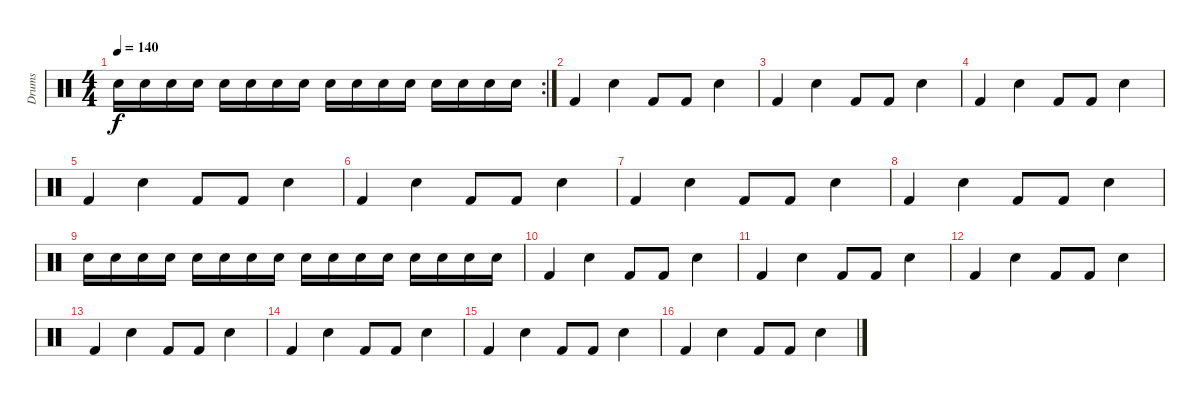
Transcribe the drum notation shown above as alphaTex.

\track ("Drums" "Drums") {instrument percussion}
\staff {score}
\articulation defaults
\rc 2
\ts (4 4)
\tempo 140
\clef neutral
\ks c "Electric Snare (hit)".16{dy f} "Electric Snare (hit)".16 "Electric Snare (hit)".16 "Electric Snare (hit)".16 "Electric Snare (hit)".16 "Electric Snare (hit)".16 "Electric Snare (hit)".16 "Electric Snare (hit)".16 "Electric Snare (hit)".16 "Electric Snare (hit)".16 "Electric Snare (hit)".16 "Electric Snare (hit)".16 "Electric Snare (hit)".16 "Electric Snare (hit)".16 "Electric Snare (hit)".16 "Electric Snare (hit)".16
|
"Kick (hit) 2".4 "Electric Snare (hit)".4 "Kick (hit) 2".8 "Kick (hit) 2".8 "Electric Snare (hit)".4 |
"Kick (hit) 2".4 "Electric Snare (hit)".4 "Kick (hit) 2".8 "Kick (hit) 2".8 "Electric Snare (hit)".4 |
"Kick (hit) 2".4 "Electric Snare (hit)".4 "Kick (hit) 2".8 "Kick (hit) 2".8 "Electric Snare (hit)".4 |
"Kick (hit) 2".4 "Electric Snare (hit)".4 "Kick (hit) 2".8 "Kick (hit) 2".8 "Electric Snare (hit)".4 |
"Kick (hit) 2".4 "Electric Snare (hit)".4 "Kick (hit) 2".8 "Kick (hit) 2".8 "Electric Snare (hit)".4 |
"Kick (hit) 2".4 "Electric Snare (hit)".4 "Kick (hit) 2".8 "Kick (hit) 2".8 "Electric Snare (hit)".4 |
"Kick (hit) 2".4 "Electric Snare (hit)".4 "Kick (hit) 2".8 "Kick (hit) 2".8 "Electric Snare (hit)".4 |
"Electric Snare (hit)".16 "Electric Snare (hit)".16 "Electric Snare (hit)".16 "Electric Snare (hit)".16 "Electric Snare (hit)".16 "Electric Snare (hit)".16 "Electric Snare (hit)".16 "Electric Snare (hit)".16 "Electric Snare (hit)".16 "Electric Snare (hit)".16 "Electric Snare (hit)".16 "Electric Snare (hit)".16 "Electric Snare (hit)".16 "Electric Snare (hit)".16 "Electric Snare (hit)".16 "Electric Snare (hit)".16 |
"Kick (hit) 2".4 "Electric Snare (hit)".4 "Kick (hit) 2".8 "Kick (hit) 2".8 "Electric Snare (hit)".4 |
"Kick (hit) 2".4 "Electric Snare (hit)".4 "Kick (hit) 2".8 "Kick (hit) 2".8 "Electric Snare (hit)".4 |
"Kick (hit) 2".4 "Electric Snare (hit)".4 "Kick (hit) 2".8 "Kick (hit) 2".8 "Electric Snare (hit)".4 |
"Kick (hit) 2".4 "Electric Snare (hit)".4 "Kick (hit) 2".8 "Kick (hit) 2".8 "Electric Snare (hit)".4 |
"Kick (hit) 2".4 "Electric Snare (hit)".4 "Kick (hit) 2".8 "Kick (hit) 2".8 "Electric Snare (hit)".4 |
"Kick (hit) 2".4 "Electric Snare (hit)".4 "Kick (hit) 2".8 "Kick (hit) 2".8 "Electric Snare (hit)".4 |
"Kick (hit) 2".4 "Electric Snare (hit)".4 "Kick (hit) 2".8 "Kick (hit) 2".8 "Electric Snare (hit)".4
